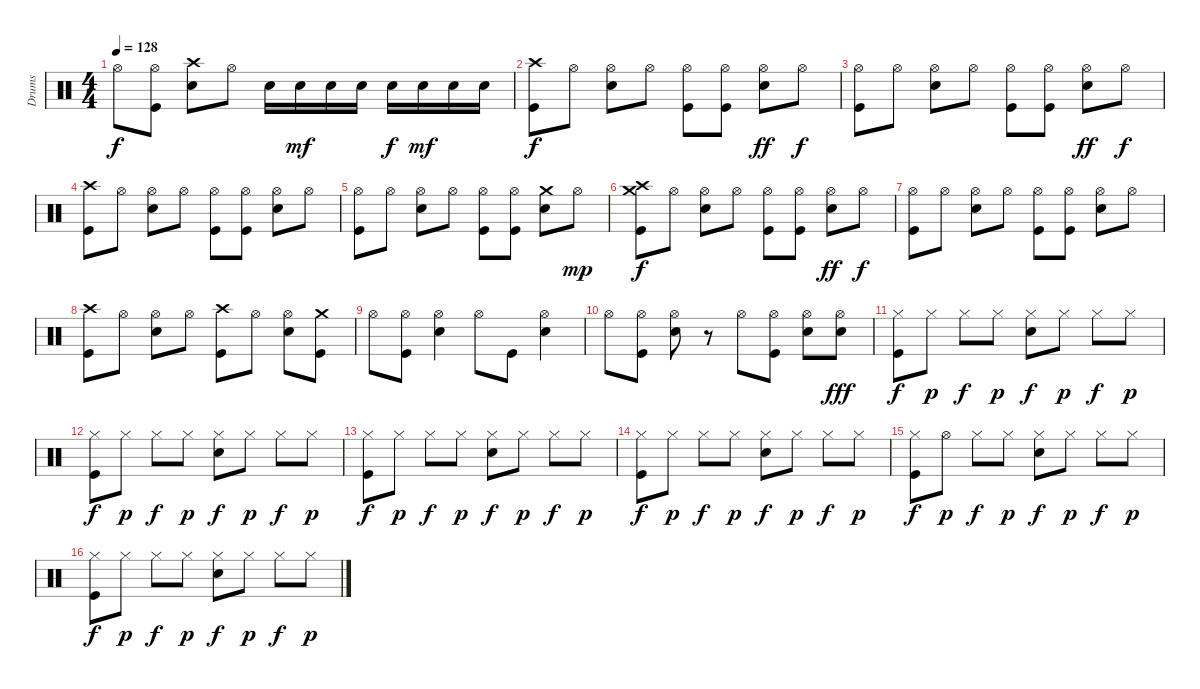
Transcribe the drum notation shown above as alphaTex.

\track ("Drums" "Drums") {instrument percussion}
\staff {score}
\articulation defaults
\ts (4 4)
\tempo 128
\clef neutral
\ks c "Hi-Hat (open)".8{dy f}
("Hi-Hat (open)" "Kick (hit)").8 ("Crash high (hit)" "Snare (hit) 2").8 "Hi-Hat (open)".8 "Snare (hit) 2".16 "Snare (hit) 2".16{dy mf} "Snare (hit) 2".16 "Snare (hit) 2".16 "Snare (hit) 2".16{dy f} "Snare (hit) 2".16{dy mf} "Snare (hit) 2".16 "Snare (hit) 2".16 |
("Crash high (hit)" "Kick (hit)").8{dy f} "Hi-Hat (open)".8 ("Hi-Hat (open)" "Snare (hit) 2").8 "Hi-Hat (open)".8 ("Hi-Hat (open)" "Kick (hit)").8 ("Hi-Hat (open)" "Kick (hit)").8 ("Hi-Hat (open)" "Snare (hit) 2").8{dy ff} "Hi-Hat (open)".8{dy f} |
("Hi-Hat (open)" "Kick (hit)").8 "Hi-Hat (open)".8 ("Hi-Hat (open)" "Snare (hit) 2").8 "Hi-Hat (open)".8 ("Hi-Hat (open)" "Kick (hit)").8 ("Hi-Hat (open)" "Kick (hit)").8 ("Hi-Hat (open)" "Snare (hit) 2").8{dy ff} "Hi-Hat (open)".8{dy f} |
("Crash high (hit)" "Kick (hit)").8 "Hi-Hat (open)".8 ("Hi-Hat (open)" "Snare (hit) 2").8 "Hi-Hat (open)".8 ("Hi-Hat (open)" "Kick (hit)").8 ("Hi-Hat (open)" "Kick (hit)").8 ("Hi-Hat (open)" "Snare (hit) 2").8 "Hi-Hat (open)".8 |
("Hi-Hat (open)" "Kick (hit)").8 "Hi-Hat (open)".8 ("Hi-Hat (open)" "Snare (hit) 2").8 "Hi-Hat (open)".8 ("Hi-Hat (open)" "Kick (hit)").8 ("Hi-Hat (open)" "Kick (hit)").8 ("Crash medium (hit)" "Snare (hit) 2").8 "Hi-Hat (open)".8{dy mp} |
("Crash high (hit)" "Crash medium (hit)" "Kick (hit)").8{dy f} "Hi-Hat (open)".8 ("Hi-Hat (open)" "Snare (hit) 2").8 "Hi-Hat (open)".8 ("Hi-Hat (open)" "Kick (hit)").8 ("Hi-Hat (open)" "Kick (hit)").8 ("Hi-Hat (open)" "Snare (hit) 2").8{dy ff} "Hi-Hat (open)".8{dy f} |
("Hi-Hat (open)" "Kick (hit)").8 "Hi-Hat (open)".8 ("Hi-Hat (open)" "Snare (hit) 2").8 "Hi-Hat (open)".8 ("Hi-Hat (open)" "Kick (hit)").8 ("Hi-Hat (open)" "Kick (hit)").8 ("Hi-Hat (open)" "Snare (hit) 2").8 "Hi-Hat (open)".8 |
("Crash high (hit)" "Kick (hit)").8 "Hi-Hat (open)".8 ("Hi-Hat (open)" "Snare (hit) 2").8 "Hi-Hat (open)".8 ("Crash high (hit)" "Kick (hit)").8 "Hi-Hat (open)".8 ("Hi-Hat (open)" "Snare (hit) 2").8 ("Crash medium (hit)" "Kick (hit)").8 |
"Hi-Hat (open)".8 ("Hi-Hat (open)" "Kick (hit)").8 ("Hi-Hat (open)" "Snare (hit) 2").4 "Hi-Hat (open)".8 "Kick (hit)".8 ("Hi-Hat (open)" "Snare (hit) 2").4 |
"Hi-Hat (open)".8 ("Hi-Hat (open)" "Kick (hit)").8 ("Hi-Hat (open)" "Snare (hit) 2").8 r.8 "Hi-Hat (open)".8 ("Hi-Hat (open)" "Kick (hit)").8 ("Hi-Hat (open)" "Snare (hit) 2").8 ("Hi-Hat (open)" "Snare (hit) 2").8{dy fff} |
("Hi-Hat (closed)" "Kick (hit)").8{dy f} "Hi-Hat (closed)".8{dy p} "Hi-Hat (closed)".8{dy f} "Hi-Hat (closed)".8{dy p} ("Hi-Hat (closed)" "Snare (hit) 2").8{dy f} "Hi-Hat (closed)".8{dy p} "Hi-Hat (closed)".8{dy f} "Hi-Hat (closed)".8{dy p} |
("Hi-Hat (closed)" "Kick (hit)").8{dy f} "Hi-Hat (closed)".8{dy p} "Hi-Hat (closed)".8{dy f} "Hi-Hat (closed)".8{dy p} ("Hi-Hat (closed)" "Snare (hit) 2").8{dy f} "Hi-Hat (closed)".8{dy p} "Hi-Hat (closed)".8{dy f} "Hi-Hat (closed)".8{dy p} |
("Hi-Hat (closed)" "Kick (hit)").8{dy f} "Hi-Hat (closed)".8{dy p} "Hi-Hat (closed)".8{dy f} "Hi-Hat (closed)".8{dy p} ("Hi-Hat (closed)" "Snare (hit) 2").8{dy f} "Hi-Hat (closed)".8{dy p} "Hi-Hat (closed)".8{dy f} "Hi-Hat (closed)".8{dy p} |
("Hi-Hat (closed)" "Kick (hit)").8{dy f} "Hi-Hat (closed)".8{dy p} "Hi-Hat (closed)".8{dy f} "Hi-Hat (closed)".8{dy p} ("Hi-Hat (closed)" "Snare (hit) 2").8{dy f} "Hi-Hat (closed)".8{dy p} "Hi-Hat (closed)".8{dy f} "Hi-Hat (closed)".8{dy p} |
("Hi-Hat (closed)" "Kick (hit)").8{dy f} "Hi-Hat (open)".8{dy p} "Hi-Hat (closed)".8{dy f} "Hi-Hat (closed)".8{dy p} ("Hi-Hat (closed)" "Snare (hit) 2").8{dy f} "Hi-Hat (closed)".8{dy p} "Hi-Hat (closed)".8{dy f} "Hi-Hat (closed)".8{dy p} |
("Hi-Hat (closed)" "Kick (hit)").8{dy f} "Hi-Hat (closed)".8{dy p} "Hi-Hat (closed)".8{dy f} "Hi-Hat (closed)".8{dy p} ("Hi-Hat (closed)" "Snare (hit) 2").8{dy f} "Hi-Hat (closed)".8{dy p} "Hi-Hat (closed)".8{dy f} "Hi-Hat (closed)".8{dy p}
